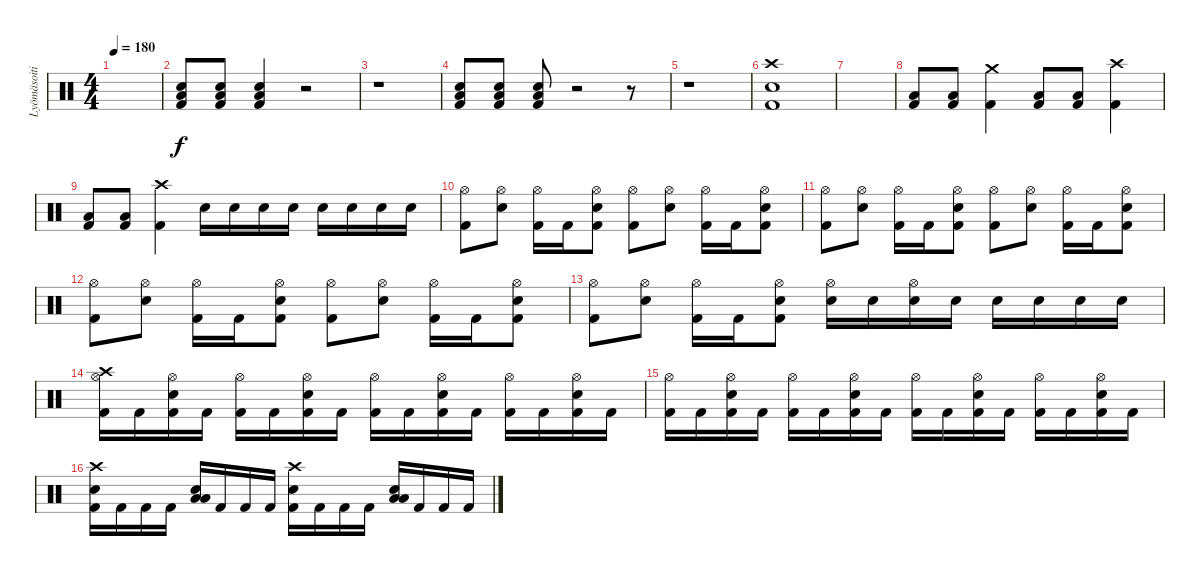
\track ("Lyömäsoitin" "Lyömäsoiti") {instrument percussion}
\staff {score}
\articulation defaults
\ts (4 4)
\tempo 180
\clef neutral
\ks c
|
("Kick (hit) 2" "Low Floor Tom (hit)" "Snare (hit) 2").8 ("Kick (hit) 2" "Low Floor Tom (hit)" "Snare (hit) 2").8 ("Kick (hit) 2" "Low Floor Tom (hit)" "Snare (hit) 2").4 r.2 |
r.1 |
("Kick (hit) 2" "Low Floor Tom (hit)" "Snare (hit) 2").8 ("Kick (hit) 2" "Low Floor Tom (hit)" "Snare (hit) 2").8 ("Kick (hit) 2" "Low Floor Tom (hit)" "Snare (hit) 2").8 r.2 r.8 |
r.1 |
("Kick (hit) 2" "Snare (hit) 2" "Crash high (hit)").1 |
|
("Kick (hit) 2" "Low Floor Tom (hit)").8 ("Kick (hit) 2" "Low Floor Tom (hit)").8 ("Kick (hit) 2" "Crash medium (hit)").4 ("Kick (hit) 2" "Low Floor Tom (hit)").8 ("Kick (hit) 2" "Low Floor Tom (hit)").8 ("Kick (hit) 2" "Crash high (hit)").4 |
("Kick (hit) 2" "Low Floor Tom (hit)").8 ("Kick (hit) 2" "Low Floor Tom (hit)").8 ("Kick (hit) 2" "Crash high (hit)").4 "Snare (hit) 2".16 "Snare (hit) 2".16 "Snare (hit) 2".16 "Snare (hit) 2".16 "Snare (hit) 2".16 "Snare (hit) 2".16 "Snare (hit) 2".16 "Snare (hit) 2".16 |
("Kick (hit) 2" "Hi-Hat (open)").8 ("Snare (hit) 2" "Hi-Hat (open)").8 ("Kick (hit) 2" "Hi-Hat (open)").16 "Kick (hit) 2".16 ("Kick (hit) 2" "Snare (hit) 2" "Hi-Hat (open)").8 ("Kick (hit) 2" "Hi-Hat (open)").8 ("Snare (hit) 2" "Hi-Hat (open)").8 ("Kick (hit) 2" "Hi-Hat (open)").16 "Kick (hit) 2".16 ("Kick (hit) 2" "Snare (hit) 2" "Hi-Hat (open)").8 |
("Kick (hit) 2" "Hi-Hat (open)").8 ("Snare (hit) 2" "Hi-Hat (open)").8 ("Kick (hit) 2" "Hi-Hat (open)").16 "Kick (hit) 2".16 ("Kick (hit) 2" "Snare (hit) 2" "Hi-Hat (open)").8 ("Kick (hit) 2" "Hi-Hat (open)").8 ("Snare (hit) 2" "Hi-Hat (open)").8 ("Kick (hit) 2" "Hi-Hat (open)").16 "Kick (hit) 2".16 ("Kick (hit) 2" "Snare (hit) 2" "Hi-Hat (open)").8 |
("Kick (hit) 2" "Hi-Hat (open)").8 ("Snare (hit) 2" "Hi-Hat (open)").8 ("Kick (hit) 2" "Hi-Hat (open)").16 "Kick (hit) 2".16 ("Kick (hit) 2" "Snare (hit) 2" "Hi-Hat (open)").8 ("Kick (hit) 2" "Hi-Hat (open)").8 ("Snare (hit) 2" "Hi-Hat (open)").8 ("Kick (hit) 2" "Hi-Hat (open)").16 "Kick (hit) 2".16 ("Kick (hit) 2" "Snare (hit) 2" "Hi-Hat (open)").8 |
("Kick (hit) 2" "Hi-Hat (open)").8 ("Snare (hit) 2" "Hi-Hat (open)").8 ("Kick (hit) 2" "Hi-Hat (open)").16 "Kick (hit) 2".16 ("Kick (hit) 2" "Snare (hit) 2" "Hi-Hat (open)").8 ("Snare (hit) 2" "Hi-Hat (open)").16 "Snare (hit) 2".16 ("Snare (hit) 2" "Hi-Hat (open)").16 "Snare (hit) 2".16 "Snare (hit) 2".16 "Snare (hit) 2".16 "Snare (hit) 2".16 "Snare (hit) 2".16 |
("Kick (hit) 2" "Crash high (hit)" "Hi-Hat (open)").16 "Kick (hit) 2".16 ("Kick (hit) 2" "Snare (hit) 2" "Hi-Hat (open)").16 "Kick (hit) 2".16 ("Kick (hit) 2" "Hi-Hat (open)").16 "Kick (hit) 2".16 ("Kick (hit) 2" "Snare (hit) 2" "Hi-Hat (open)").16 "Kick (hit) 2".16 ("Kick (hit) 2" "Hi-Hat (open)").16 "Kick (hit) 2".16 ("Kick (hit) 2" "Snare (hit) 2" "Hi-Hat (open)").16 "Kick (hit) 2".16 ("Kick (hit) 2" "Hi-Hat (open)").16 "Kick (hit) 2".16 ("Kick (hit) 2" "Snare (hit) 2" "Hi-Hat (open)").16 "Kick (hit) 2".16 |
("Kick (hit) 2" "Hi-Hat (open)").16 "Kick (hit) 2".16 ("Kick (hit) 2" "Snare (hit) 2" "Hi-Hat (open)").16 "Kick (hit) 2".16 ("Kick (hit) 2" "Hi-Hat (open)").16 "Kick (hit) 2".16 ("Kick (hit) 2" "Snare (hit) 2" "Hi-Hat (open)").16 "Kick (hit) 2".16 ("Kick (hit) 2" "Hi-Hat (open)").16 "Kick (hit) 2".16 ("Kick (hit) 2" "Snare (hit) 2" "Hi-Hat (open)").16 "Kick (hit) 2".16 ("Kick (hit) 2" "Hi-Hat (open)").16 "Kick (hit) 2".16 ("Kick (hit) 2" "Snare (hit) 2" "Hi-Hat (open)").16 "Kick (hit) 2".16 |
("Kick (hit) 2" "Snare (hit) 2" "Crash high (hit)").16 "Kick (hit) 2".16 "Kick (hit) 2".16 "Kick (hit) 2".16 ("Snare (hit) 2" "Low Floor Tom (hit)" "Low Floor Tom (hit)").16 "Kick (hit) 2".16 "Kick (hit) 2".16 "Kick (hit) 2".16 ("Kick (hit) 2" "Snare (hit) 2" "Crash high (hit)").16 "Kick (hit) 2".16 "Kick (hit) 2".16 "Kick (hit) 2".16 ("Snare (hit) 2" "Low Floor Tom (hit)" "Low Floor Tom (hit)").16 "Kick (hit) 2".16 "Kick (hit) 2".16 "Kick (hit) 2".16
